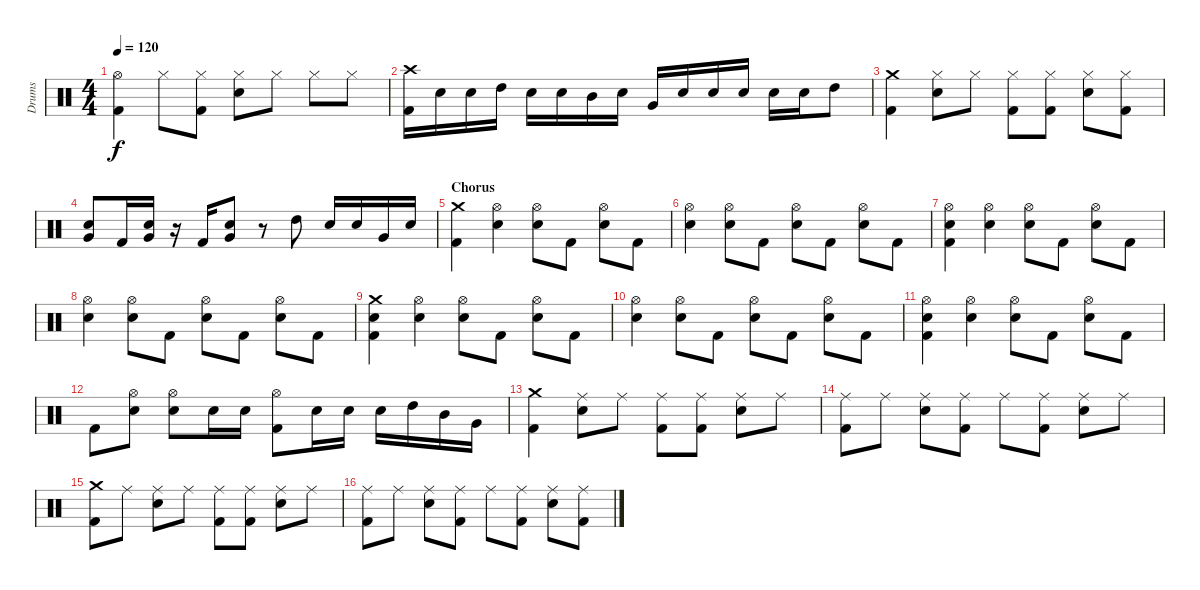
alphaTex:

\track ("Drums" "Drums") {instrument percussion}
\staff {score}
\articulation defaults
\ts (4 4)
\tempo 120
\clef neutral
\ks c
("Hi-Hat (open)" "Kick (hit) 2").4{dy f} "Hi-Hat (closed)".8 ("Hi-Hat (closed)" "Kick (hit) 2").8 ("Hi-Hat (closed)" "Snare (hit) 2").8 "Hi-Hat (closed)".8 "Hi-Hat (closed)".8 "Hi-Hat (closed)".8 |
("Crash high (hit)" "Kick (hit) 2").16 "Snare (hit) 2".16 "Snare (hit) 2".16 "High Tom (hit)".16 "Snare (hit) 2".16 "Snare (hit) 2".16 "Mid Tom (hit)".16 "Snare (hit) 2".16 "Very Low Tom (hit)".16 "Snare (hit) 2".16 "Snare (hit) 2".16 "Snare (hit) 2".16 "Snare (hit) 2".16 "Snare (hit) 2".16 "High Tom (hit)".8 |
("Crash medium (hit)" "Kick (hit) 2").4 ("Hi-Hat (closed)" "Snare (hit) 2").8 "Hi-Hat (closed)".8 ("Hi-Hat (closed)" "Kick (hit) 2").8 ("Hi-Hat (closed)" "Kick (hit) 2").8 ("Hi-Hat (closed)" "Snare (hit) 2").8 ("Hi-Hat (closed)" "Kick (hit) 2").8 |
("Snare (hit) 2" "Very Low Tom (hit)").8 "Kick (hit) 2".16 ("Snare (hit) 2" "Very Low Tom (hit)").16 r.16 "Kick (hit) 2".16 ("Snare (hit) 2" "Very Low Tom (hit)").8 r.8 "High Tom (hit)".8 "Snare (hit) 2".16 "Snare (hit) 2".16 "Very Low Tom (hit)".16 "Snare (hit) 2".16 |
\section ("" "Chorus")
("Crash medium (hit)" "Kick (hit) 2").4 ("Hi-Hat (open)" "Snare (hit) 2").4 ("Hi-Hat (open)" "Snare (hit) 2").8 "Kick (hit) 2".8 ("Hi-Hat (open)" "Snare (hit) 2").8 "Kick (hit) 2".8 |
("Hi-Hat (open)" "Snare (hit) 2").4 ("Hi-Hat (open)" "Snare (hit) 2").8 "Kick (hit) 2".8 ("Hi-Hat (open)" "Snare (hit) 2").8 "Kick (hit) 2".8 ("Hi-Hat (open)" "Snare (hit) 2").8 "Kick (hit) 2".8 |
("Hi-Hat (open)" "Snare (hit) 2" "Kick (hit) 2").4 ("Hi-Hat (open)" "Snare (hit) 2").4 ("Hi-Hat (open)" "Snare (hit) 2").8 "Kick (hit) 2".8 ("Hi-Hat (open)" "Snare (hit) 2").8 "Kick (hit) 2".8 |
("Hi-Hat (open)" "Snare (hit) 2").4 ("Hi-Hat (open)" "Snare (hit) 2").8 "Kick (hit) 2".8 ("Hi-Hat (open)" "Snare (hit) 2").8 "Kick (hit) 2".8 ("Hi-Hat (open)" "Snare (hit) 2").8 "Kick (hit) 2".8 |
("Crash medium (hit)" "Snare (hit) 2" "Kick (hit) 2").4 ("Hi-Hat (open)" "Snare (hit) 2").4 ("Hi-Hat (open)" "Snare (hit) 2").8 "Kick (hit) 2".8 ("Hi-Hat (open)" "Snare (hit) 2").8 "Kick (hit) 2".8 |
("Hi-Hat (open)" "Snare (hit) 2").4 ("Hi-Hat (open)" "Snare (hit) 2").8 "Kick (hit) 2".8 ("Hi-Hat (open)" "Snare (hit) 2").8 "Kick (hit) 2".8 ("Hi-Hat (open)" "Snare (hit) 2").8 "Kick (hit) 2".8 |
("Hi-Hat (open)" "Snare (hit) 2" "Kick (hit) 2").4 ("Hi-Hat (open)" "Snare (hit) 2").4 ("Hi-Hat (open)" "Snare (hit) 2").8 "Kick (hit) 2".8 ("Hi-Hat (open)" "Snare (hit) 2").8 "Kick (hit) 2".8 |
"Kick (hit) 2".8 ("Hi-Hat (open)" "Snare (hit) 2").8 ("Hi-Hat (open)" "Snare (hit) 2").8 "Snare (hit) 2".16 "Snare (hit) 2".16 ("Hi-Hat (open)" "Kick (hit) 2").8 "Snare (hit) 2".16 "Snare (hit) 2".16 "Snare (hit) 2".16 "High Tom (hit)".16 "Mid Tom (hit)".16 "Very Low Tom (hit)".16 |
("Crash medium (hit)" "Kick (hit) 2").4 ("Ride (middle)" "Snare (hit) 2").8 "Ride (middle)".8 ("Ride (middle)" "Kick (hit) 2").8 ("Ride (middle)" "Kick (hit) 2").8 ("Ride (middle)" "Snare (hit) 2").8 "Ride (middle)".8 |
("Ride (middle)" "Kick (hit) 2").8 "Ride (middle)".8 ("Ride (middle)" "Snare (hit) 2").8 ("Ride (middle)" "Kick (hit) 2").8 "Ride (middle)".8 ("Ride (middle)" "Kick (hit) 2").8 ("Ride (middle)" "Snare (hit) 2").8 "Ride (middle)".8 |
("Crash medium (hit)" "Kick (hit) 2").8 "Ride (middle)".8 ("Ride (middle)" "Snare (hit) 2").8 "Ride (middle)".8 ("Ride (middle)" "Kick (hit) 2").8 ("Ride (middle)" "Kick (hit) 2").8 ("Ride (middle)" "Snare (hit) 2").8 "Ride (middle)".8 |
("Ride (middle)" "Kick (hit) 2").8 "Ride (middle)".8 ("Ride (middle)" "Snare (hit) 2").8 ("Ride (middle)" "Kick (hit) 2").8 "Ride (middle)".8 ("Ride (middle)" "Kick (hit) 2").8 ("Ride (middle)" "Snare (hit) 2").8 ("Ride (middle)" "Kick (hit) 2").8
